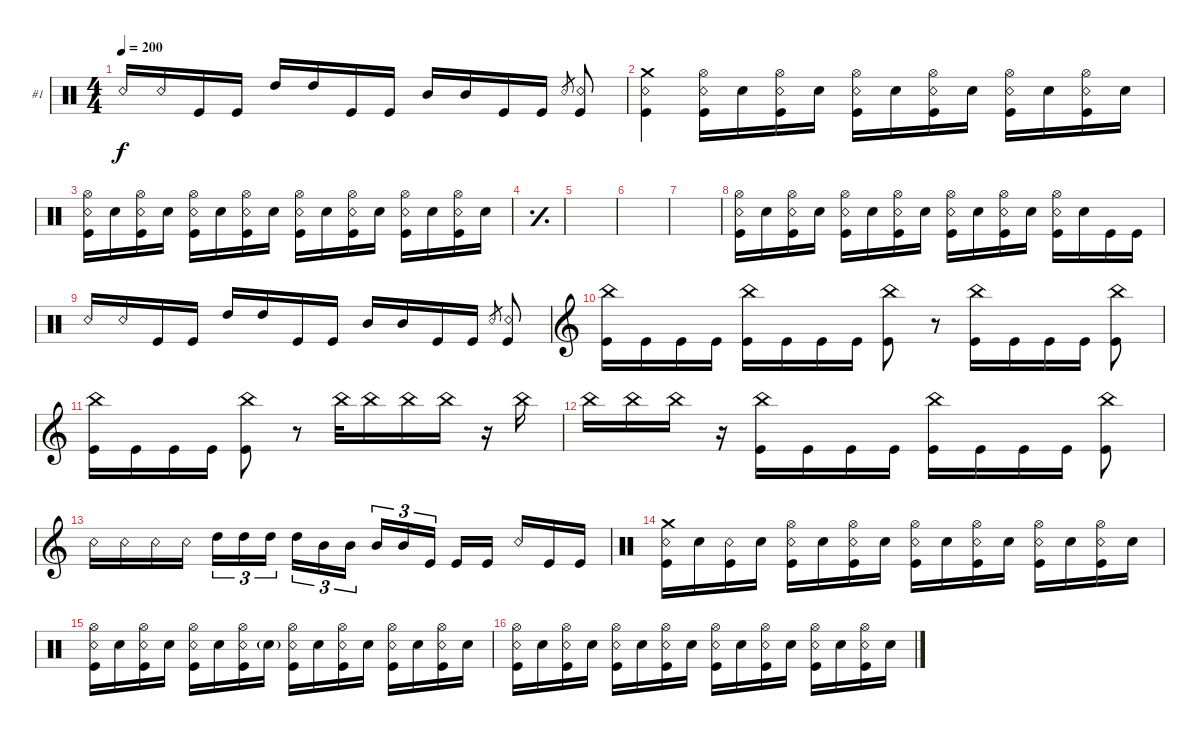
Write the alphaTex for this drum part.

\bracketExtendMode groupsimilarinstruments
\firstSystemTrackNameOrientation horizontal
\otherSystemsTrackNameOrientation horizontal
\track ("Joey Jordison" "#1") {instrument percussion}
\staff {score}
\articulation defaults
\ts (4 4)
\tempo 200
\clef neutral
\ks c "Snare (rim shot)".16{dy f} "Snare (rim shot)".16 "Kick (hit)".16 "Kick (hit)".16 "High Tom (hit)".16 "High Tom (hit)".16 "Kick (hit)".16 "Kick (hit)".16 "Mid Tom (hit)".16 "Mid Tom (hit)".16 "Kick (hit)".16 "Kick (hit)".16 "Snare (rim shot)".8{gr}
("Snare (rim shot)" "Kick (hit)").8 |
("Crash medium (hit)" "Snare (rim shot)" "Kick (hit)").4 ("Snare (rim shot)" "Kick (hit)" "Hi-Hat (open)").16 "Snare (hit) 2".16 ("Snare (rim shot)" "Kick (hit)" "Hi-Hat (open)").16 "Snare (hit) 2".16 ("Snare (rim shot)" "Kick (hit)" "Hi-Hat (open)").16 "Snare (hit) 2".16 ("Snare (rim shot)" "Kick (hit)" "Hi-Hat (open)").16 "Snare (hit) 2".16 ("Snare (rim shot)" "Kick (hit)" "Hi-Hat (open)").16 "Snare (hit) 2".16 ("Snare (rim shot)" "Kick (hit)" "Hi-Hat (open)").16 "Snare (hit) 2".16 |
("Snare (rim shot)" "Kick (hit)" "Hi-Hat (open)").16 "Snare (hit) 2".16 ("Snare (rim shot)" "Kick (hit)" "Hi-Hat (open)").16 "Snare (hit) 2".16 ("Snare (rim shot)" "Kick (hit)" "Hi-Hat (open)").16 "Snare (hit) 2".16 ("Snare (rim shot)" "Kick (hit)" "Hi-Hat (open)").16 "Snare (hit) 2".16 ("Snare (rim shot)" "Kick (hit)" "Hi-Hat (open)").16 "Snare (hit) 2".16 ("Snare (rim shot)" "Kick (hit)" "Hi-Hat (open)").16 "Snare (hit) 2".16 ("Snare (rim shot)" "Kick (hit)" "Hi-Hat (open)").16 "Snare (hit) 2".16 ("Snare (rim shot)" "Kick (hit)" "Hi-Hat (open)").16 "Snare (hit) 2".16 |
\simile simple
|
|
|
|
\simile none
("Snare (rim shot)" "Kick (hit)" "Hi-Hat (open)").16 "Snare (hit) 2".16 ("Snare (rim shot)" "Kick (hit)" "Hi-Hat (open)").16 "Snare (hit) 2".16 ("Snare (rim shot)" "Kick (hit)" "Hi-Hat (open)").16 "Snare (hit) 2".16 ("Snare (rim shot)" "Kick (hit)" "Hi-Hat (open)").16 "Snare (hit) 2".16 ("Snare (rim shot)" "Kick (hit)" "Hi-Hat (open)").16 "Snare (hit) 2".16 ("Snare (rim shot)" "Kick (hit)" "Hi-Hat (open)").16 "Snare (hit) 2".16 ("Snare (rim shot)" "Kick (hit)" "Hi-Hat (open)").16 "Snare (hit) 2".16 "Kick (hit)".16 "Kick (hit)".16 |
"Snare (rim shot)".16 "Snare (rim shot)".16 "Kick (hit)".16 "Kick (hit)".16 "High Tom (hit)".16 "High Tom (hit)".16 "Kick (hit)".16 "Kick (hit)".16 "Mid Tom (hit)".16 "Mid Tom (hit)".16 "Kick (hit)".16 "Kick (hit)".16 "Snare (rim shot)".8{gr} ("Snare (rim shot)" "Kick (hit)").8 |
\clef g2
("Kick (hit)" "China (hit)").16 "Kick (hit)".16 "Kick (hit)".16 "Kick (hit)".16 ("Kick (hit)" "China (hit)").16 "Kick (hit)".16 "Kick (hit)".16 "Kick (hit)".16 ("Kick (hit)" "China (hit)").8 r.8 ("Kick (hit)" "China (hit)").16 "Kick (hit)".16 "Kick (hit)".16 "Kick (hit)".16 ("Kick (hit)" "China (hit)").8 |
("Kick (hit)" "China (hit)").16 "Kick (hit)".16 "Kick (hit)".16 "Kick (hit)".16 ("Kick (hit)" "China (hit)").8 r.8 "China (hit)".32 "China (hit)".16 "China (hit)".16 "China (hit)".16 r.16 "China (hit)".16 |
"China (hit)".16 "China (hit)".16 "China (hit)".16 r.16 ("Kick (hit)" "China (hit)").16 "Kick (hit)".16 "Kick (hit)".16 "Kick (hit)".16 ("Kick (hit)" "China (hit)").16 "Kick (hit)".16 "Kick (hit)".16 "Kick (hit)".16 ("Kick (hit)" "China (hit)").8 |
"Snare (rim shot)".16 "Snare (rim shot)".16 "Snare (rim shot)".16 "Snare (rim shot)".16 "High Tom (hit)".16{tu (3 2)} "High Tom (hit)".16{tu (3 2)} "High Tom (hit)".16{tu (3 2)} "High Tom (hit)".16{tu (3 2)} "Mid Tom (hit)".16{tu (3 2)} "Mid Tom (hit)".16{tu (3 2)} "Mid Tom (hit)".16{tu (3 2)} "Mid Tom (hit)".16{tu (3 2)} "Kick (hit)".16{tu (3 2)} "Kick (hit)".16 "Kick (hit)".16 "Snare (rim shot)".16 "Kick (hit)".16 "Kick (hit)".16 |
\clef neutral
("Crash medium (hit)" "Snare (rim shot)" "Kick (hit)").16 "Snare (hit) 2".16 ("Kick (hit)" "Snare (rim shot)").16 "Snare (hit) 2".16 ("Snare (rim shot)" "Kick (hit)" "Hi-Hat (open)").16 "Snare (hit) 2".16 ("Snare (rim shot)" "Kick (hit)" "Hi-Hat (open)").16 "Snare (hit) 2".16 ("Snare (rim shot)" "Kick (hit)" "Hi-Hat (open)").16 "Snare (hit) 2".16 ("Snare (rim shot)" "Kick (hit)" "Hi-Hat (open)").16 "Snare (hit) 2".16 ("Snare (rim shot)" "Kick (hit)" "Hi-Hat (open)").16 "Snare (hit) 2".16 ("Snare (rim shot)" "Kick (hit)" "Hi-Hat (open)").16 "Snare (hit) 2".16 |
("Snare (rim shot)" "Kick (hit)" "Hi-Hat (open)").16 "Snare (hit) 2".16 ("Snare (rim shot)" "Kick (hit)" "Hi-Hat (open)").16 "Snare (hit) 2".16 ("Snare (rim shot)" "Kick (hit)" "Hi-Hat (open)").16 "Snare (hit) 2".16 ("Snare (rim shot)" "Kick (hit)" "Hi-Hat (open)").16 "Snare (hit) 2"{g}.16 ("Snare (rim shot)" "Kick (hit)" "Hi-Hat (open)").16 "Snare (hit) 2".16 ("Snare (rim shot)" "Kick (hit)" "Hi-Hat (open)").16 "Snare (hit) 2".16 ("Snare (rim shot)" "Kick (hit)" "Hi-Hat (open)").16 "Snare (hit) 2".16 ("Snare (rim shot)" "Kick (hit)" "Hi-Hat (open)").16 "Snare (hit) 2".16 |
("Snare (rim shot)" "Kick (hit)" "Hi-Hat (open)").16 "Snare (hit) 2".16 ("Snare (rim shot)" "Kick (hit)" "Hi-Hat (open)").16 "Snare (hit) 2".16 ("Snare (rim shot)" "Kick (hit)" "Hi-Hat (open)").16 "Snare (hit) 2".16 ("Snare (rim shot)" "Kick (hit)" "Hi-Hat (open)").16 "Snare (hit) 2".16 ("Snare (rim shot)" "Kick (hit)" "Hi-Hat (open)").16 "Snare (hit) 2".16 ("Snare (rim shot)" "Kick (hit)" "Hi-Hat (open)").16 "Snare (hit) 2".16 ("Snare (rim shot)" "Kick (hit)" "Hi-Hat (open)").16 "Snare (hit) 2".16 ("Snare (rim shot)" "Kick (hit)" "Hi-Hat (open)").16 "Snare (hit) 2".16
